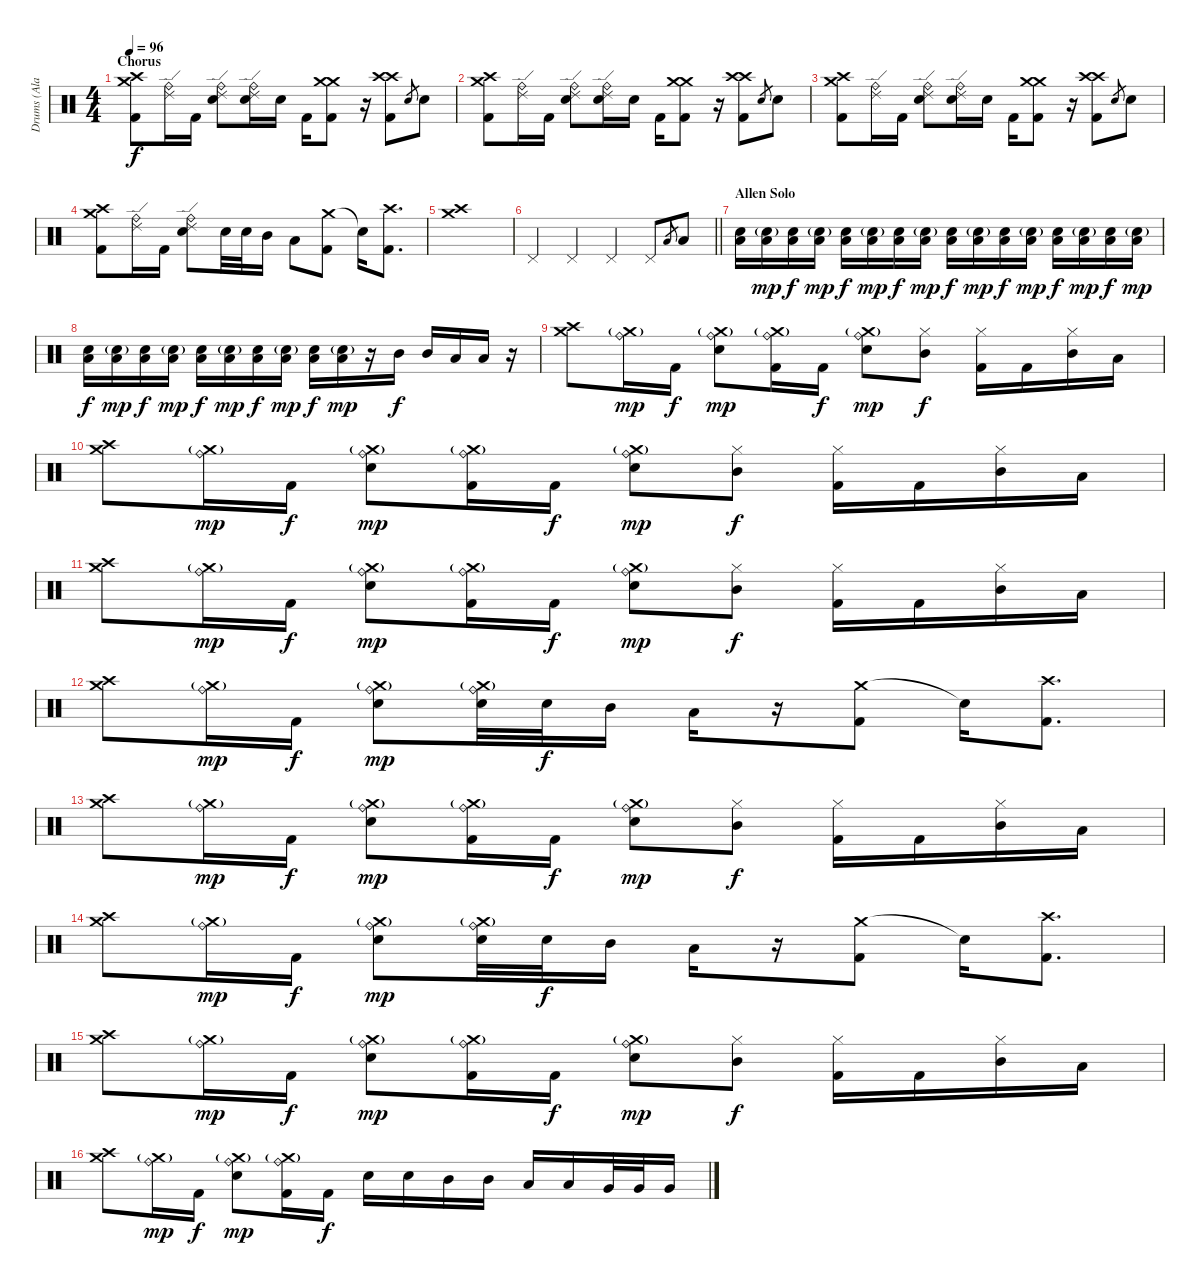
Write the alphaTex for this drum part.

\track ("Drums (Ala Pyle)" "Drums (Ala") {instrument percussion}
\staff {score}
\articulation defaults
\ts (4 4)
\section ("" "Chorus")
\tempo 96
\clef neutral
\ks c
("Crash medium (hit)" "Crash high (hit)" "Kick (hit) 2").8{dy f} ("Ride (edge) 2" "Ride (bell)").16 "Kick (hit) 2".16 ("Ride (edge) 2" "Ride (bell)" "Electric Snare (hit)").8 ("Ride (edge) 2" "Ride (bell)" "Electric Snare (hit)").16 "Electric Snare (hit)".16 "Kick (hit) 2".16 ("Crash medium (hit)" "Crash medium (hit)" "Kick (hit) 2").8 r.16 ("Crash high (hit)" "Crash high (hit)" "Kick (hit) 2").8 "Electric Snare (hit)".8{gr} "Electric Snare (hit)".8 |
("Crash medium (hit)" "Crash high (hit)" "Kick (hit) 2").8 ("Ride (edge) 2" "Ride (bell)").16 "Kick (hit) 2".16 ("Ride (edge) 2" "Ride (bell)" "Electric Snare (hit)").8 ("Ride (edge) 2" "Ride (bell)" "Electric Snare (hit)").16 "Electric Snare (hit)".16 "Kick (hit) 2".16 ("Crash medium (hit)" "Crash medium (hit)" "Kick (hit) 2").8 r.16 ("Crash high (hit)" "Crash high (hit)" "Kick (hit) 2").8 "Electric Snare (hit)".8{gr} "Electric Snare (hit)".8 |
("Crash medium (hit)" "Crash high (hit)" "Kick (hit) 2").8 ("Ride (edge) 2" "Ride (bell)").16 "Kick (hit) 2".16 ("Ride (edge) 2" "Ride (bell)" "Electric Snare (hit)").8 ("Ride (edge) 2" "Ride (bell)" "Electric Snare (hit)").16 "Electric Snare (hit)".16 "Kick (hit) 2".16 ("Crash medium (hit)" "Crash medium (hit)" "Kick (hit) 2").8 r.16 ("Crash high (hit)" "Crash high (hit)" "Kick (hit) 2").8 "Electric Snare (hit)".8{gr} "Electric Snare (hit)".8 |
("Crash medium (hit)" "Crash high (hit)" "Kick (hit) 2").8 ("Ride (edge) 2" "Ride (bell)").16 "Kick (hit) 2".16 ("Ride (edge) 2" "Ride (bell)" "Electric Snare (hit)").8 "Electric Snare (hit)".32 "Electric Snare (hit)".32 "Mid Tom (hit)".16 "Low Tom (hit)".8 ("Crash medium (hit)" "Kick (hit) 2").8 "Snare (hit)"{t}.16 ("Crash high (hit)" "Kick (hit) 2").8{d} |
("Crash medium (hit)" "Crash high (hit)").1 |
\barLineRight lightlight "Pedal Hi-Hat (hit)".4 "Pedal Hi-Hat (hit)".4 "Pedal Hi-Hat (hit)".4 "Pedal Hi-Hat (hit)".8 "Low Floor Tom (hit)".8{gr} "Low Floor Tom (hit)".8
|
\section ("" "Allen Solo")
("Electric Snare (hit)" "Low Floor Tom (hit)").16 ("Electric Snare (hit)"{g} "Low Floor Tom (hit)").16{dy mp} ("Electric Snare (hit)" "Low Floor Tom (hit)").16{dy f} ("Electric Snare (hit)"{g} "Low Floor Tom (hit)").16{dy mp} ("Electric Snare (hit)" "Low Floor Tom (hit)").16{dy f} ("Electric Snare (hit)"{g} "Low Floor Tom (hit)").16{dy mp} ("Electric Snare (hit)" "Low Floor Tom (hit)").16{dy f} ("Electric Snare (hit)"{g} "Low Floor Tom (hit)").16{dy mp} ("Electric Snare (hit)" "Low Floor Tom (hit)").16{dy f} ("Electric Snare (hit)"{g} "Low Floor Tom (hit)").16{dy mp} ("Electric Snare (hit)" "Low Floor Tom (hit)").16{dy f} ("Electric Snare (hit)"{g} "Low Floor Tom (hit)").16{dy mp} ("Electric Snare (hit)" "Low Floor Tom (hit)").16{dy f} ("Electric Snare (hit)"{g} "Low Floor Tom (hit)").16{dy mp} ("Electric Snare (hit)" "Low Floor Tom (hit)").16{dy f} ("Electric Snare (hit)"{g} "Low Floor Tom (hit)").16{dy mp} |
("Electric Snare (hit)" "Low Floor Tom (hit)").16{dy f} ("Electric Snare (hit)"{g} "Low Floor Tom (hit)").16{dy mp} ("Electric Snare (hit)" "Low Floor Tom (hit)").16{dy f} ("Electric Snare (hit)"{g} "Low Floor Tom (hit)").16{dy mp} ("Electric Snare (hit)" "Low Floor Tom (hit)").16{dy f} ("Electric Snare (hit)"{g} "Low Floor Tom (hit)").16{dy mp} ("Electric Snare (hit)" "Low Floor Tom (hit)").16{dy f} ("Electric Snare (hit)"{g} "Low Floor Tom (hit)").16{dy mp} ("Electric Snare (hit)" "Low Floor Tom (hit)").16{dy f} ("Electric Snare (hit)"{g} "Low Floor Tom (hit)").16{dy mp} r.16 "Mid Tom (hit)".16{dy f} "Mid Tom (hit)".16 "Low Tom (hit)".16 "Low Tom (hit)".16 r.16 |
("Crash medium (hit)" "Crash high (hit)").8 ("Crash medium (hit)"{g} "Ride (bell)").16{dy mp} "Kick (hit) 2".16{dy f} ("Crash medium (hit)"{g} "Ride (bell)" "Electric Snare (hit)").8{dy mp} ("Crash medium (hit)"{g} "Ride (bell)" "Kick (hit) 2").16 "Kick (hit) 2".16{dy f} ("Crash medium (hit)"{g} "Ride (bell)" "Electric Snare (hit)").8{dy mp} ("Hi-Hat (closed)" "Mid Tom (hit)").8{dy f} ("Hi-Hat (closed)" "Kick (hit) 2").16 "Kick (hit) 2".16 ("Hi-Hat (closed)" "Mid Tom (hit)").16 "Low Tom (hit)".16 |
("Crash medium (hit)" "Crash high (hit)").8 ("Crash medium (hit)"{g} "Ride (bell)").16{dy mp} "Kick (hit) 2".16{dy f} ("Crash medium (hit)"{g} "Ride (bell)" "Electric Snare (hit)").8{dy mp} ("Crash medium (hit)"{g} "Ride (bell)" "Kick (hit) 2").16 "Kick (hit) 2".16{dy f} ("Crash medium (hit)"{g} "Ride (bell)" "Electric Snare (hit)").8{dy mp} ("Hi-Hat (closed)" "Mid Tom (hit)").8{dy f} ("Hi-Hat (closed)" "Kick (hit) 2").16 "Kick (hit) 2".16 ("Hi-Hat (closed)" "Mid Tom (hit)").16 "Low Tom (hit)".16 |
("Crash medium (hit)" "Crash high (hit)").8 ("Crash medium (hit)"{g} "Ride (bell)").16{dy mp} "Kick (hit) 2".16{dy f} ("Crash medium (hit)"{g} "Ride (bell)" "Electric Snare (hit)").8{dy mp} ("Crash medium (hit)"{g} "Ride (bell)" "Kick (hit) 2").16 "Kick (hit) 2".16{dy f} ("Crash medium (hit)"{g} "Ride (bell)" "Electric Snare (hit)").8{dy mp} ("Hi-Hat (closed)" "Mid Tom (hit)").8{dy f} ("Hi-Hat (closed)" "Kick (hit) 2").16 "Kick (hit) 2".16 ("Hi-Hat (closed)" "Mid Tom (hit)").16 "Low Tom (hit)".16 |
("Crash medium (hit)" "Crash high (hit)").8 ("Crash medium (hit)"{g} "Ride (bell)").16{dy mp} "Kick (hit) 2".16{dy f} ("Crash medium (hit)"{g} "Ride (bell)" "Electric Snare (hit)").8{dy mp} ("Crash medium (hit)"{g} "Ride (bell)" "Electric Snare (hit)").32 "Electric Snare (hit)".32{dy f} "Mid Tom (hit)".16 "Low Tom (hit)".16 r.16 ("Crash medium (hit)" "Kick (hit) 2").8 "Snare (hit)"{t}.16 ("Crash high (hit)" "Kick (hit) 2").8{d} |
("Crash medium (hit)" "Crash high (hit)").8 ("Crash medium (hit)"{g} "Ride (bell)").16{dy mp} "Kick (hit) 2".16{dy f} ("Crash medium (hit)"{g} "Ride (bell)" "Electric Snare (hit)").8{dy mp} ("Crash medium (hit)"{g} "Ride (bell)" "Kick (hit) 2").16 "Kick (hit) 2".16{dy f} ("Crash medium (hit)"{g} "Ride (bell)" "Electric Snare (hit)").8{dy mp} ("Hi-Hat (closed)" "Mid Tom (hit)").8{dy f} ("Hi-Hat (closed)" "Kick (hit) 2").16 "Kick (hit) 2".16 ("Hi-Hat (closed)" "Mid Tom (hit)").16 "Low Tom (hit)".16 |
("Crash medium (hit)" "Crash high (hit)").8 ("Crash medium (hit)"{g} "Ride (bell)").16{dy mp} "Kick (hit) 2".16{dy f} ("Crash medium (hit)"{g} "Ride (bell)" "Electric Snare (hit)").8{dy mp} ("Crash medium (hit)"{g} "Ride (bell)" "Electric Snare (hit)").32 "Electric Snare (hit)".32{dy f} "Mid Tom (hit)".16 "Low Tom (hit)".16 r.16 ("Crash medium (hit)" "Kick (hit) 2").8 "Snare (hit)"{t}.16 ("Crash high (hit)" "Kick (hit) 2").8{d} |
("Crash medium (hit)" "Crash high (hit)").8 ("Crash medium (hit)"{g} "Ride (bell)").16{dy mp} "Kick (hit) 2".16{dy f} ("Crash medium (hit)"{g} "Ride (bell)" "Electric Snare (hit)").8{dy mp} ("Crash medium (hit)"{g} "Ride (bell)" "Kick (hit) 2").16 "Kick (hit) 2".16{dy f} ("Crash medium (hit)"{g} "Ride (bell)" "Electric Snare (hit)").8{dy mp} ("Hi-Hat (closed)" "Mid Tom (hit)").8{dy f} ("Hi-Hat (closed)" "Kick (hit) 2").16 "Kick (hit) 2".16 ("Hi-Hat (closed)" "Mid Tom (hit)").16 "Low Tom (hit)".16 |
("Crash medium (hit)" "Crash high (hit)").8 ("Crash medium (hit)"{g} "Ride (bell)").16{dy mp} "Kick (hit) 2".16{dy f} ("Crash medium (hit)"{g} "Ride (bell)" "Electric Snare (hit)").8{dy mp} ("Crash medium (hit)"{g} "Ride (bell)" "Kick (hit) 2").16 "Kick (hit) 2".16{dy f} "Electric Snare (hit)".16 "Electric Snare (hit)".16 "Mid Tom (hit)".16 "Mid Tom (hit)".16 "Low Tom (hit)".16 "Low Tom (hit)".16 "Very Low Tom (hit)".32 "Very Low Tom (hit)".32 "Very Low Tom (hit)".16
